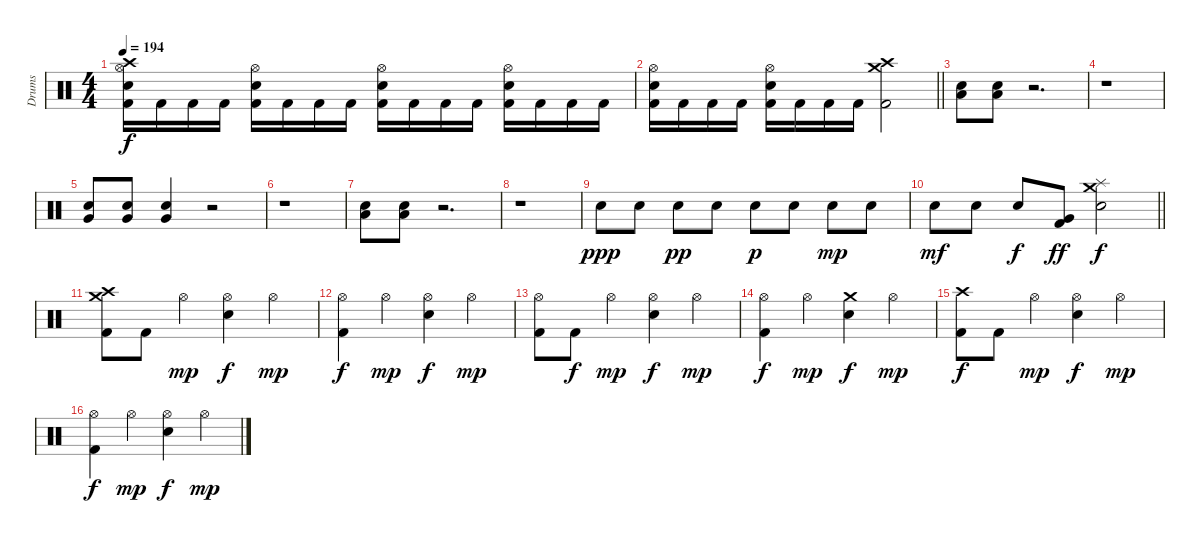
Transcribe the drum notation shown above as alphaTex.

\track ("Drums" "Drums") {instrument percussion}
\staff {score}
\articulation defaults
\ts (4 4)
\tempo 194
\clef neutral
\ks c
("Crash high (hit)" "Hi-Hat (open)" "Electric Snare (hit)" "Kick (hit) 2").16{dy f} "Kick (hit) 2".16 "Kick (hit) 2".16 "Kick (hit) 2".16 ("Hi-Hat (open)" "Electric Snare (hit)" "Kick (hit) 2").16 "Kick (hit) 2".16 "Kick (hit) 2".16 "Kick (hit) 2".16 ("Hi-Hat (open)" "Electric Snare (hit)" "Kick (hit) 2").16 "Kick (hit) 2".16 "Kick (hit) 2".16 "Kick (hit) 2".16 ("Hi-Hat (open)" "Electric Snare (hit)" "Kick (hit) 2").16 "Kick (hit) 2".16 "Kick (hit) 2".16 "Kick (hit) 2".16 |
\barLineRight lightlight
("Hi-Hat (open)" "Electric Snare (hit)" "Kick (hit) 2").16 "Kick (hit) 2".16 "Kick (hit) 2".16 "Kick (hit) 2".16 ("Hi-Hat (open)" "Electric Snare (hit)" "Kick (hit) 2").16 "Kick (hit) 2".16 "Kick (hit) 2".16 "Kick (hit) 2".16 ("Crash high (hit)" "Crash medium (hit)" "Kick (hit) 2").2 |
("Low Tom (hit)" "Electric Snare (hit)").8 ("Low Tom (hit)" "Electric Snare (hit)").8 r.2{d} |
r.1 |
("Very Low Tom (hit)" "Electric Snare (hit)").8 ("Very Low Tom (hit)" "Electric Snare (hit)").8 ("Very Low Tom (hit)" "Electric Snare (hit)").4 r.2 |
r.1 |
("Low Tom (hit)" "Electric Snare (hit)").8 ("Low Tom (hit)" "Electric Snare (hit)").8 r.2{d} |
r.1 |
"Electric Snare (hit)".8{dy ppp} "Electric Snare (hit)".8 "Electric Snare (hit)".8{dy pp} "Electric Snare (hit)".8 "Electric Snare (hit)".8{dy p} "Electric Snare (hit)".8 "Electric Snare (hit)".8{dy mp} "Electric Snare (hit)".8 |
\barLineRight lightlight "Electric Snare (hit)".8{dy mf} "Electric Snare (hit)".8 "Electric Snare (hit)".8{dy f}
("Very Low Tom (hit)" "Kick (hit) 2").8{dy ff} ("Crash medium (hit)" "Splash (hit)" "Electric Snare (hit)").2{dy f} |
("Crash high (hit)" "Crash medium (hit)" "Kick (hit) 2").8 "Kick (hit) 2".8 "Hi-Hat (open)".4{dy mp} ("Hi-Hat (open)" "Electric Snare (hit)").4{dy f} "Hi-Hat (open)".4{dy mp} |
("Hi-Hat (open)" "Kick (hit) 2").4{dy f} "Hi-Hat (open)".4{dy mp} ("Hi-Hat (open)" "Electric Snare (hit)").4{dy f} "Hi-Hat (open)".4{dy mp} |
("Hi-Hat (open)" "Kick (hit) 2").8 "Kick (hit) 2".8{dy f} "Hi-Hat (open)".4{dy mp} ("Hi-Hat (open)" "Electric Snare (hit)").4{dy f} "Hi-Hat (open)".4{dy mp} |
("Hi-Hat (open)" "Kick (hit) 2").4{dy f} "Hi-Hat (open)".4{dy mp} ("Crash medium (hit)" "Electric Snare (hit)").4{dy f} "Hi-Hat (open)".4{dy mp} |
("Crash high (hit)" "Kick (hit) 2").8{dy f} "Kick (hit) 2".8 "Hi-Hat (open)".4{dy mp} ("Hi-Hat (open)" "Electric Snare (hit)").4{dy f} "Hi-Hat (open)".4{dy mp} |
("Hi-Hat (open)" "Kick (hit) 2").4{dy f} "Hi-Hat (open)".4{dy mp} ("Hi-Hat (open)" "Electric Snare (hit)").4{dy f} "Hi-Hat (open)".4{dy mp}
